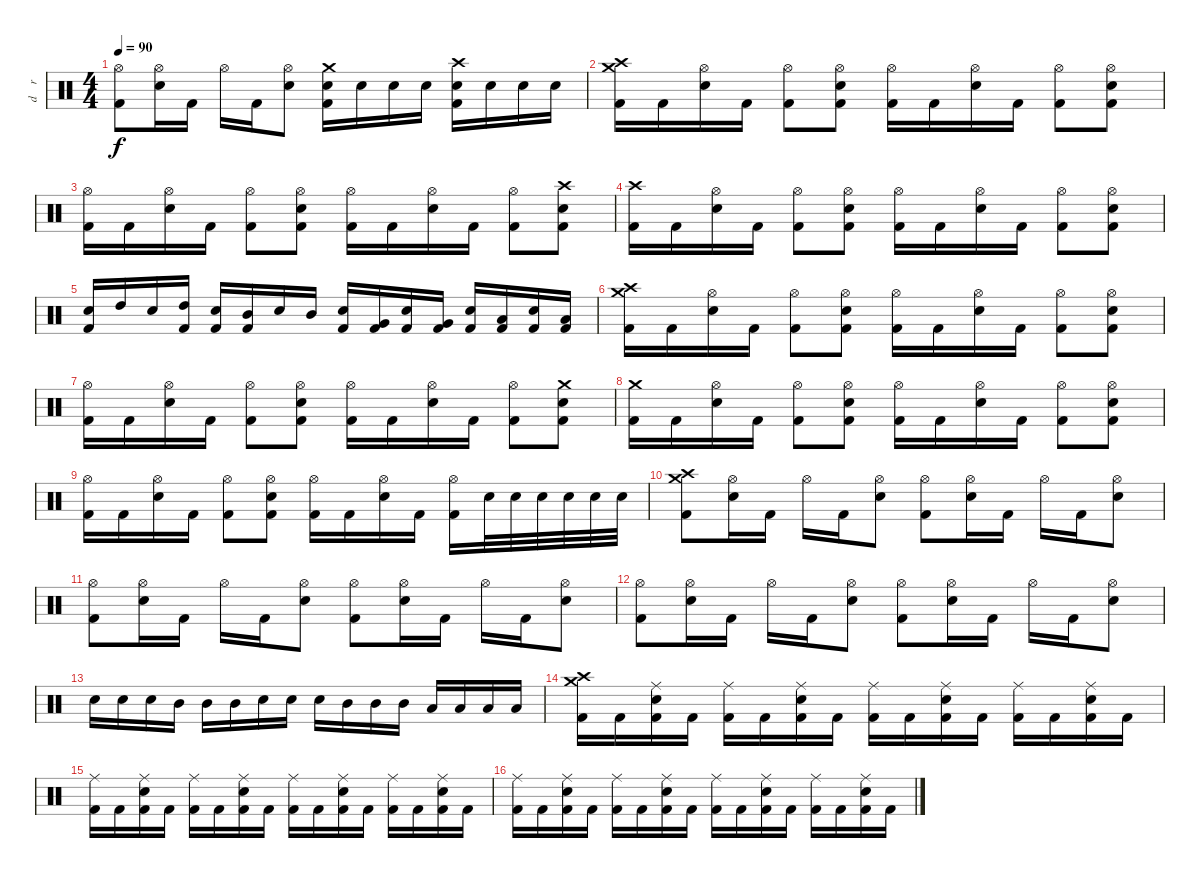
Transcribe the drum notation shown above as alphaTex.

\track ("d    r    u    m    s" "d    r    ") {instrument percussion}
\staff {score}
\articulation defaults
\ts (4 4)
\tempo 90
\clef neutral
\ks c
("Hi-Hat (open)" "Kick (hit) 2").8{dy f} ("Hi-Hat (open)" "Electric Snare (hit)").16 "Kick (hit) 2".16 "Hi-Hat (open)".16 "Kick (hit) 2".16 ("Hi-Hat (open)" "Electric Snare (hit)").8 ("Crash medium (hit)" "Electric Snare (hit)" "Kick (hit) 2").16 "Electric Snare (hit)".16 "Electric Snare (hit)".16 "Electric Snare (hit)".16 ("Crash high (hit)" "Electric Snare (hit)" "Kick (hit) 2").16 "Electric Snare (hit)".16 "Electric Snare (hit)".16 "Electric Snare (hit)".16 |
("Crash high (hit)" "Crash medium (hit)" "Kick (hit) 2").16 "Kick (hit) 2".16 ("Hi-Hat (open)" "Electric Snare (hit)").16 "Kick (hit) 2".16 ("Hi-Hat (open)" "Kick (hit) 2").8 ("Hi-Hat (open)" "Electric Snare (hit)" "Kick (hit) 2").8 ("Hi-Hat (open)" "Kick (hit) 2").16 "Kick (hit) 2".16 ("Hi-Hat (open)" "Electric Snare (hit)").16 "Kick (hit) 2".16 ("Hi-Hat (open)" "Kick (hit) 2").8 ("Hi-Hat (open)" "Electric Snare (hit)" "Kick (hit) 2").8 |
("Hi-Hat (open)" "Kick (hit) 2").16 "Kick (hit) 2".16 ("Hi-Hat (open)" "Electric Snare (hit)").16 "Kick (hit) 2".16 ("Hi-Hat (open)" "Kick (hit) 2").8 ("Hi-Hat (open)" "Electric Snare (hit)" "Kick (hit) 2").8 ("Hi-Hat (open)" "Kick (hit) 2").16 "Kick (hit) 2".16 ("Hi-Hat (open)" "Electric Snare (hit)").16 "Kick (hit) 2".16 ("Hi-Hat (open)" "Kick (hit) 2").8 ("Crash high (hit)" "Electric Snare (hit)" "Kick (hit) 2").8 |
("Crash high (hit)" "Kick (hit) 2").16 "Kick (hit) 2".16 ("Hi-Hat (open)" "Electric Snare (hit)").16 "Kick (hit) 2".16 ("Hi-Hat (open)" "Kick (hit) 2").8 ("Hi-Hat (open)" "Electric Snare (hit)" "Kick (hit) 2").8 ("Hi-Hat (open)" "Kick (hit) 2").16 "Kick (hit) 2".16 ("Hi-Hat (open)" "Electric Snare (hit)").16 "Kick (hit) 2".16 ("Hi-Hat (open)" "Kick (hit) 2").8 ("Hi-Hat (open)" "Electric Snare (hit)" "Kick (hit) 2").8 |
("Electric Snare (hit)" "Kick (hit) 2").16 "High Tom (hit)".16 "Electric Snare (hit)".16 ("High Tom (hit)" "Kick (hit) 2").16 ("Electric Snare (hit)" "Kick (hit) 2").16 ("Mid Tom (hit)" "Kick (hit) 2").16 "Electric Snare (hit)".16 "Mid Tom (hit)".16 ("Electric Snare (hit)" "Kick (hit) 2").16 ("Very Low Tom (hit)" "Kick (hit) 2").16 ("Electric Snare (hit)" "Kick (hit) 2").16 ("Very Low Tom (hit)" "Kick (hit) 2").16 ("Electric Snare (hit)" "Kick (hit) 2").16 ("Low Floor Tom (hit)" "Kick (hit) 2").16 ("Electric Snare (hit)" "Kick (hit) 2").16 ("Low Floor Tom (hit)" "Kick (hit) 2").16 |
("Crash high (hit)" "Crash medium (hit)" "Kick (hit) 2").16 "Kick (hit) 2".16 ("Hi-Hat (open)" "Electric Snare (hit)").16 "Kick (hit) 2".16 ("Hi-Hat (open)" "Kick (hit) 2").8 ("Hi-Hat (open)" "Electric Snare (hit)" "Kick (hit) 2").8 ("Hi-Hat (open)" "Kick (hit) 2").16 "Kick (hit) 2".16 ("Hi-Hat (open)" "Electric Snare (hit)").16 "Kick (hit) 2".16 ("Hi-Hat (open)" "Kick (hit) 2").8 ("Hi-Hat (open)" "Electric Snare (hit)" "Kick (hit) 2").8 |
("Hi-Hat (open)" "Kick (hit) 2").16 "Kick (hit) 2".16 ("Hi-Hat (open)" "Electric Snare (hit)").16 "Kick (hit) 2".16 ("Hi-Hat (open)" "Kick (hit) 2").8 ("Hi-Hat (open)" "Electric Snare (hit)" "Kick (hit) 2").8 ("Hi-Hat (open)" "Kick (hit) 2").16 "Kick (hit) 2".16 ("Hi-Hat (open)" "Electric Snare (hit)").16 "Kick (hit) 2".16 ("Hi-Hat (open)" "Kick (hit) 2").8 ("Crash medium (hit)" "Electric Snare (hit)" "Kick (hit) 2").8 |
("Crash medium (hit)" "Kick (hit) 2").16 "Kick (hit) 2".16 ("Hi-Hat (open)" "Electric Snare (hit)").16 "Kick (hit) 2".16 ("Hi-Hat (open)" "Kick (hit) 2").8 ("Hi-Hat (open)" "Electric Snare (hit)" "Kick (hit) 2").8 ("Hi-Hat (open)" "Kick (hit) 2").16 "Kick (hit) 2".16 ("Hi-Hat (open)" "Electric Snare (hit)").16 "Kick (hit) 2".16 ("Hi-Hat (open)" "Kick (hit) 2").8 ("Hi-Hat (open)" "Electric Snare (hit)" "Kick (hit) 2").8 |
("Hi-Hat (open)" "Kick (hit) 2").16 "Kick (hit) 2".16 ("Hi-Hat (open)" "Electric Snare (hit)").16 "Kick (hit) 2".16 ("Hi-Hat (open)" "Kick (hit) 2").8 ("Hi-Hat (open)" "Electric Snare (hit)" "Kick (hit) 2").8 ("Hi-Hat (open)" "Kick (hit) 2").16 "Kick (hit) 2".16 ("Hi-Hat (open)" "Electric Snare (hit)").16 "Kick (hit) 2".16 ("Hi-Hat (open)" "Kick (hit) 2").16 "Electric Snare (hit)".32 "Electric Snare (hit)".32 "Electric Snare (hit)".32 "Electric Snare (hit)".32 "Electric Snare (hit)".32 "Electric Snare (hit)".32 |
("Crash high (hit)" "Crash medium (hit)" "Kick (hit) 2").8 ("Hi-Hat (open)" "Electric Snare (hit)").16 "Kick (hit) 2".16 "Hi-Hat (open)".16 "Kick (hit) 2".16 ("Hi-Hat (open)" "Electric Snare (hit)").8 ("Hi-Hat (open)" "Kick (hit) 2").8 ("Hi-Hat (open)" "Electric Snare (hit)").16 "Kick (hit) 2".16 "Hi-Hat (open)".16 "Kick (hit) 2".16 ("Hi-Hat (open)" "Electric Snare (hit)").8 |
("Hi-Hat (open)" "Kick (hit) 2").8 ("Hi-Hat (open)" "Electric Snare (hit)").16 "Kick (hit) 2".16 "Hi-Hat (open)".16 "Kick (hit) 2".16 ("Hi-Hat (open)" "Electric Snare (hit)").8 ("Hi-Hat (open)" "Kick (hit) 2").8 ("Hi-Hat (open)" "Electric Snare (hit)").16 "Kick (hit) 2".16 "Hi-Hat (open)".16 "Kick (hit) 2".16 ("Hi-Hat (open)" "Electric Snare (hit)").8 |
("Hi-Hat (open)" "Kick (hit) 2").8 ("Hi-Hat (open)" "Electric Snare (hit)").16 "Kick (hit) 2".16 "Hi-Hat (open)".16 "Kick (hit) 2".16 ("Hi-Hat (open)" "Electric Snare (hit)").8 ("Hi-Hat (open)" "Kick (hit) 2").8 ("Hi-Hat (open)" "Electric Snare (hit)").16 "Kick (hit) 2".16 "Hi-Hat (open)".16 "Kick (hit) 2".16 ("Hi-Hat (open)" "Electric Snare (hit)").8 |
"Electric Snare (hit)".16 "Electric Snare (hit)".16 "Electric Snare (hit)".16 "Mid Tom (hit)".16 "Mid Tom (hit)".16 "Mid Tom (hit)".16 "Electric Snare (hit)".16 "Electric Snare (hit)".16 "Electric Snare (hit)".16 "Mid Tom (hit)".16 "Mid Tom (hit)".16 "Mid Tom (hit)".16 "Low Tom (hit)".16 "Low Tom (hit)".16 "Low Tom (hit)".16 "Low Tom (hit)".16 |
("Crash high (hit)" "Crash medium (hit)" "Kick (hit) 2").16 "Kick (hit) 2".16 ("Ride (middle)" "Electric Snare (hit)" "Kick (hit) 2").16 "Kick (hit) 2".16 ("Ride (middle)" "Kick (hit) 2").16 "Kick (hit) 2".16 ("Ride (middle)" "Electric Snare (hit)" "Kick (hit) 2").16 "Kick (hit) 2".16 ("Ride (middle)" "Kick (hit) 2").16 "Kick (hit) 2".16 ("Ride (middle)" "Electric Snare (hit)" "Kick (hit) 2").16 "Kick (hit) 2".16 ("Ride (middle)" "Kick (hit) 2").16 "Kick (hit) 2".16 ("Ride (middle)" "Electric Snare (hit)" "Kick (hit) 2").16 "Kick (hit) 2".16 |
("Ride (middle)" "Kick (hit) 2").16 "Kick (hit) 2".16 ("Ride (middle)" "Electric Snare (hit)" "Kick (hit) 2").16 "Kick (hit) 2".16 ("Ride (middle)" "Kick (hit) 2").16 "Kick (hit) 2".16 ("Ride (middle)" "Electric Snare (hit)" "Kick (hit) 2").16 "Kick (hit) 2".16 ("Ride (middle)" "Kick (hit) 2").16 "Kick (hit) 2".16 ("Ride (middle)" "Electric Snare (hit)" "Kick (hit) 2").16 "Kick (hit) 2".16 ("Ride (middle)" "Kick (hit) 2").16 "Kick (hit) 2".16 ("Ride (middle)" "Electric Snare (hit)" "Kick (hit) 2").16 "Kick (hit) 2".16 |
("Ride (middle)" "Kick (hit) 2").16 "Kick (hit) 2".16 ("Ride (middle)" "Electric Snare (hit)" "Kick (hit) 2").16 "Kick (hit) 2".16 ("Ride (middle)" "Kick (hit) 2").16 "Kick (hit) 2".16 ("Ride (middle)" "Electric Snare (hit)" "Kick (hit) 2").16 "Kick (hit) 2".16 ("Ride (middle)" "Kick (hit) 2").16 "Kick (hit) 2".16 ("Ride (middle)" "Electric Snare (hit)" "Kick (hit) 2").16 "Kick (hit) 2".16 ("Ride (middle)" "Kick (hit) 2").16 "Kick (hit) 2".16 ("Ride (middle)" "Electric Snare (hit)" "Kick (hit) 2").16 "Kick (hit) 2".16
